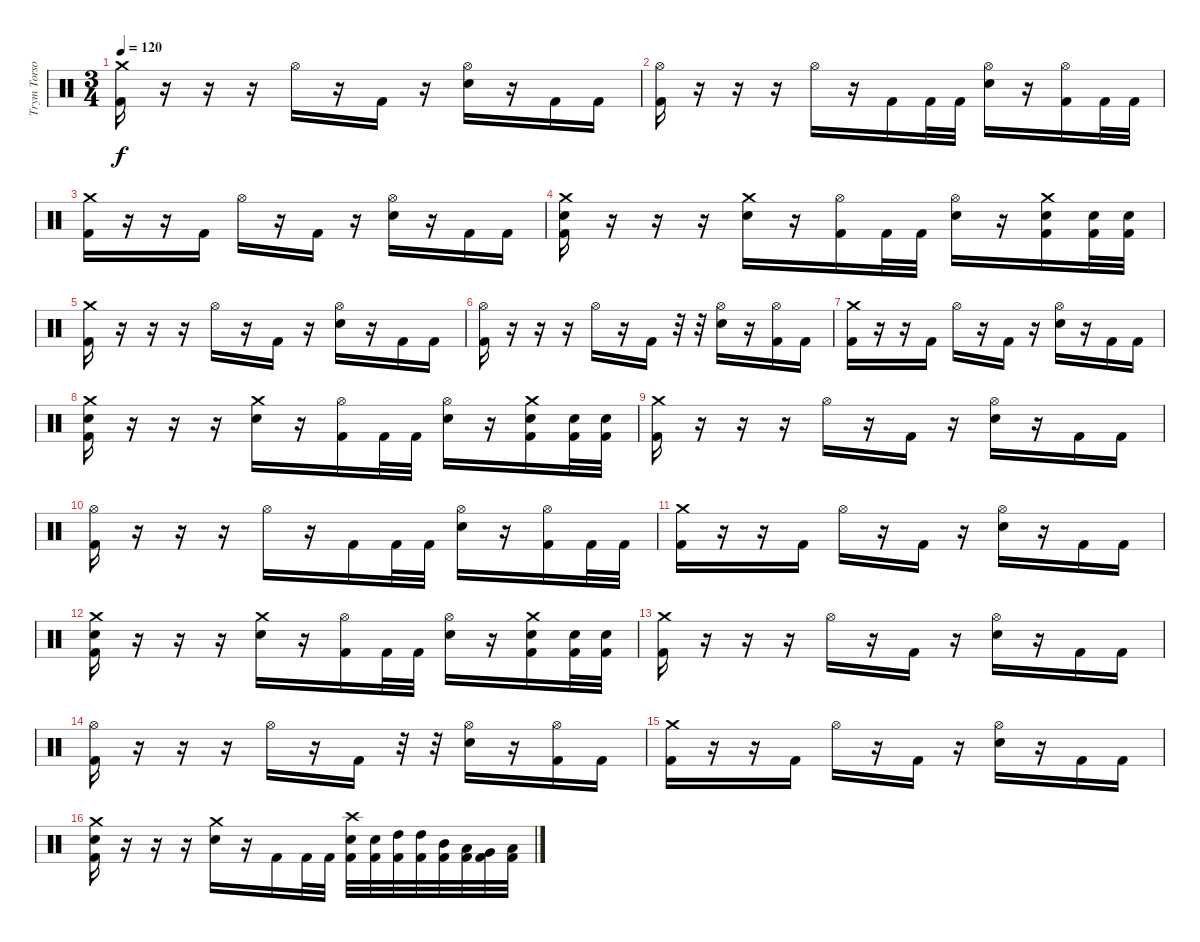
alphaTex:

\track ("Trym Torson" "Trym Torso") {instrument percussion}
\staff {score}
\articulation defaults
\ts (3 4)
\tempo 120
\clef neutral
\ks c
("Crash medium (hit)" "Kick (hit) 2").16{dy f} r.16 r.16 r.16 "Hi-Hat (open)".16 r.16 "Kick (hit) 2".16 r.16 ("Hi-Hat (open)" "Snare (hit) 2").16 r.16 "Kick (hit) 2".16 "Kick (hit) 2".16 |
("Hi-Hat (open)" "Kick (hit) 2").16 r.16 r.16 r.16 "Hi-Hat (open)".16 r.16 "Kick (hit) 2".16 "Kick (hit) 2".32 "Kick (hit) 2".32 ("Hi-Hat (open)" "Snare (hit) 2").16 r.16 ("Hi-Hat (open)" "Kick (hit) 2").16 "Kick (hit) 2".32 "Kick (hit) 2".32 |
("Crash medium (hit)" "Kick (hit) 2").16 r.16 r.16 "Kick (hit) 2".16 "Hi-Hat (open)".16 r.16 "Kick (hit) 2".16 r.16 ("Hi-Hat (open)" "Snare (hit) 2").16 r.16 "Kick (hit) 2".16 "Kick (hit) 2".16 |
("Crash medium (hit)" "Snare (hit) 2" "Kick (hit) 2").16 r.16 r.16 r.16 ("Crash medium (hit)" "Snare (hit) 2").16 r.16 ("Hi-Hat (open)" "Kick (hit) 2").16 "Kick (hit) 2".32 "Kick (hit) 2".32 ("Hi-Hat (open)" "Snare (hit) 2").16 r.16 ("Crash medium (hit)" "Snare (hit) 2" "Kick (hit) 2").16 ("Snare (hit) 2" "Kick (hit) 2").32 ("Snare (hit) 2" "Kick (hit) 2").32 |
("Crash medium (hit)" "Kick (hit) 2").16 r.16 r.16 r.16 "Hi-Hat (open)".16 r.16 "Kick (hit) 2".16 r.16 ("Hi-Hat (open)" "Snare (hit) 2").16 r.16 "Kick (hit) 2".16 "Kick (hit) 2".16 |
("Hi-Hat (open)" "Kick (hit) 2").16 r.16 r.16 r.16 "Hi-Hat (open)".16 r.16 "Kick (hit) 2".16 r.32 r.32 ("Hi-Hat (open)" "Snare (hit) 2").16 r.16 ("Hi-Hat (open)" "Kick (hit) 2").16 "Kick (hit) 2".16 |
("Crash medium (hit)" "Kick (hit) 2").16 r.16 r.16 "Kick (hit) 2".16 "Hi-Hat (open)".16 r.16 "Kick (hit) 2".16 r.16 ("Hi-Hat (open)" "Snare (hit) 2").16 r.16 "Kick (hit) 2".16 "Kick (hit) 2".16 |
("Crash medium (hit)" "Snare (hit) 2" "Kick (hit) 2").16 r.16 r.16 r.16 ("Crash medium (hit)" "Snare (hit) 2").16 r.16 ("Hi-Hat (open)" "Kick (hit) 2").16 "Kick (hit) 2".32 "Kick (hit) 2".32 ("Hi-Hat (open)" "Snare (hit) 2").16 r.16 ("Crash medium (hit)" "Snare (hit) 2" "Kick (hit) 2").16 ("Snare (hit) 2" "Kick (hit) 2").32 ("Snare (hit) 2" "Kick (hit) 2").32 |
("Crash medium (hit)" "Kick (hit) 2").16 r.16 r.16 r.16 "Hi-Hat (open)".16 r.16 "Kick (hit) 2".16 r.16 ("Hi-Hat (open)" "Snare (hit) 2").16 r.16 "Kick (hit) 2".16 "Kick (hit) 2".16 |
("Hi-Hat (open)" "Kick (hit) 2").16 r.16 r.16 r.16 "Hi-Hat (open)".16 r.16 "Kick (hit) 2".16 "Kick (hit) 2".32 "Kick (hit) 2".32 ("Hi-Hat (open)" "Snare (hit) 2").16 r.16 ("Hi-Hat (open)" "Kick (hit) 2").16 "Kick (hit) 2".32 "Kick (hit) 2".32 |
("Crash medium (hit)" "Kick (hit) 2").16 r.16 r.16 "Kick (hit) 2".16 "Hi-Hat (open)".16 r.16 "Kick (hit) 2".16 r.16 ("Hi-Hat (open)" "Snare (hit) 2").16 r.16 "Kick (hit) 2".16 "Kick (hit) 2".16 |
("Crash medium (hit)" "Snare (hit) 2" "Kick (hit) 2").16 r.16 r.16 r.16 ("Crash medium (hit)" "Snare (hit) 2").16 r.16 ("Hi-Hat (open)" "Kick (hit) 2").16 "Kick (hit) 2".32 "Kick (hit) 2".32 ("Hi-Hat (open)" "Snare (hit) 2").16 r.16 ("Crash medium (hit)" "Snare (hit) 2" "Kick (hit) 2").16 ("Snare (hit) 2" "Kick (hit) 2").32 ("Snare (hit) 2" "Kick (hit) 2").32 |
("Crash medium (hit)" "Kick (hit) 2").16 r.16 r.16 r.16 "Hi-Hat (open)".16 r.16 "Kick (hit) 2".16 r.16 ("Hi-Hat (open)" "Snare (hit) 2").16 r.16 "Kick (hit) 2".16 "Kick (hit) 2".16 |
("Hi-Hat (open)" "Kick (hit) 2").16 r.16 r.16 r.16 "Hi-Hat (open)".16 r.16 "Kick (hit) 2".16 r.32 r.32 ("Hi-Hat (open)" "Snare (hit) 2").16 r.16 ("Hi-Hat (open)" "Kick (hit) 2").16 "Kick (hit) 2".16 |
("Crash medium (hit)" "Kick (hit) 2").16 r.16 r.16 "Kick (hit) 2".16 "Hi-Hat (open)".16 r.16 "Kick (hit) 2".16 r.16 ("Hi-Hat (open)" "Snare (hit) 2").16 r.16 "Kick (hit) 2".16 "Kick (hit) 2".16 |
("Crash medium (hit)" "Snare (hit) 2" "Kick (hit) 2").16 r.16 r.16 r.16 ("Crash medium (hit)" "Snare (hit) 2").16 r.16 "Kick (hit) 2".16 "Kick (hit) 2".32 "Kick (hit) 2".32 ("Crash high (hit)" "Snare (hit) 2" "Kick (hit) 2").32 ("Snare (hit) 2" "Kick (hit) 2").32 ("High Tom (hit)" "Kick (hit) 2").32 ("High Tom (hit)" "Kick (hit) 2").32 ("Mid Tom (hit)" "Kick (hit) 2").32 ("Low Tom (hit)" "Kick (hit) 2").32 ("Very Low Tom (hit)" "Kick (hit) 2").32 ("Low Floor Tom (hit)" "Kick (hit) 2").32
